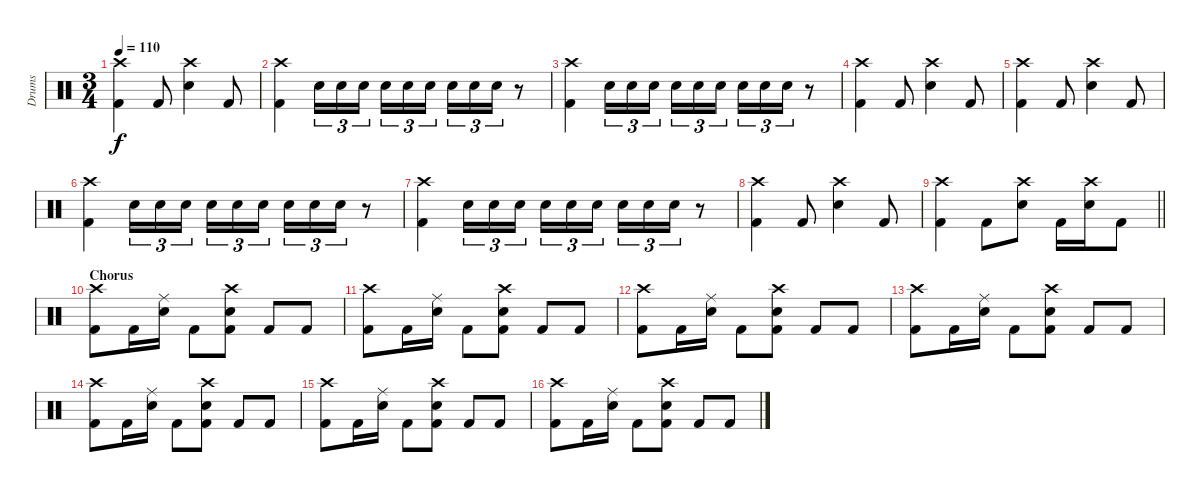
\track ("Drums" "Drums") {instrument percussion}
\staff {score}
\articulation defaults
\ts (3 4)
\tempo 110
\clef neutral
\ks c
("Crash high (hit)" "Kick (hit) 2").4{dy f} "Kick (hit) 2".8 ("Crash high (hit)" "Snare (hit) 2").4 "Kick (hit) 2".8 |
("Crash high (hit)" "Kick (hit) 2").4 "Snare (hit) 2".16{tu (3 2)} "Snare (hit) 2".16{tu (3 2)} "Snare (hit) 2".16{tu (3 2) beam splitsecondary} "Snare (hit) 2".16{tu (3 2)} "Snare (hit) 2".16{tu (3 2)} "Snare (hit) 2".16{tu (3 2)} "Snare (hit) 2".16{tu (3 2)} "Snare (hit) 2".16{tu (3 2)} "Snare (hit) 2".16{tu (3 2)} r.8 |
("Crash high (hit)" "Kick (hit) 2").4 "Snare (hit) 2".16{tu (3 2)} "Snare (hit) 2".16{tu (3 2)} "Snare (hit) 2".16{tu (3 2) beam splitsecondary} "Snare (hit) 2".16{tu (3 2)} "Snare (hit) 2".16{tu (3 2)} "Snare (hit) 2".16{tu (3 2)} "Snare (hit) 2".16{tu (3 2)} "Snare (hit) 2".16{tu (3 2)} "Snare (hit) 2".16{tu (3 2)} r.8 |
("Crash high (hit)" "Kick (hit) 2").4 "Kick (hit) 2".8 ("Crash high (hit)" "Snare (hit) 2").4 "Kick (hit) 2".8 |
("Crash high (hit)" "Kick (hit) 2").4 "Kick (hit) 2".8 ("Crash high (hit)" "Snare (hit) 2").4 "Kick (hit) 2".8 |
("Crash high (hit)" "Kick (hit) 2").4 "Snare (hit) 2".16{tu (3 2)} "Snare (hit) 2".16{tu (3 2)} "Snare (hit) 2".16{tu (3 2) beam splitsecondary} "Snare (hit) 2".16{tu (3 2)} "Snare (hit) 2".16{tu (3 2)} "Snare (hit) 2".16{tu (3 2)} "Snare (hit) 2".16{tu (3 2)} "Snare (hit) 2".16{tu (3 2)} "Snare (hit) 2".16{tu (3 2)} r.8 |
("Crash high (hit)" "Kick (hit) 2").4 "Snare (hit) 2".16{tu (3 2)} "Snare (hit) 2".16{tu (3 2)} "Snare (hit) 2".16{tu (3 2) beam splitsecondary} "Snare (hit) 2".16{tu (3 2)} "Snare (hit) 2".16{tu (3 2)} "Snare (hit) 2".16{tu (3 2)} "Snare (hit) 2".16{tu (3 2)} "Snare (hit) 2".16{tu (3 2)} "Snare (hit) 2".16{tu (3 2)} r.8 |
("Crash high (hit)" "Kick (hit) 2").4 "Kick (hit) 2".8 ("Crash high (hit)" "Snare (hit) 2").4 "Kick (hit) 2".8 |
\barLineRight lightlight
("Crash high (hit)" "Kick (hit) 2").4 "Kick (hit) 2".8 ("Crash high (hit)" "Snare (hit) 2").8 "Kick (hit) 2".16 ("Crash high (hit)" "Snare (hit) 2").16 "Kick (hit) 2".8 |
\section ("" "Chorus")
("Crash high (hit)" "Kick (hit) 2").8 "Kick (hit) 2".16 ("Ride (middle)" "Snare (hit) 2").16 "Kick (hit) 2".8 ("Crash high (hit)" "Snare (hit) 2" "Kick (hit) 2").8 "Kick (hit) 2".8 "Kick (hit) 2".8 |
("Crash high (hit)" "Kick (hit) 2").8 "Kick (hit) 2".16 ("Ride (middle)" "Snare (hit) 2").16 "Kick (hit) 2".8 ("Crash high (hit)" "Snare (hit) 2" "Kick (hit) 2").8 "Kick (hit) 2".8 "Kick (hit) 2".8 |
("Crash high (hit)" "Kick (hit) 2").8 "Kick (hit) 2".16 ("Ride (middle)" "Snare (hit) 2").16 "Kick (hit) 2".8 ("Crash high (hit)" "Snare (hit) 2" "Kick (hit) 2").8 "Kick (hit) 2".8 "Kick (hit) 2".8 |
("Crash high (hit)" "Kick (hit) 2").8 "Kick (hit) 2".16 ("Ride (middle)" "Snare (hit) 2").16 "Kick (hit) 2".8 ("Crash high (hit)" "Snare (hit) 2" "Kick (hit) 2").8 "Kick (hit) 2".8 "Kick (hit) 2".8 |
("Crash high (hit)" "Kick (hit) 2").8 "Kick (hit) 2".16 ("Ride (middle)" "Snare (hit) 2").16 "Kick (hit) 2".8 ("Crash high (hit)" "Snare (hit) 2" "Kick (hit) 2").8 "Kick (hit) 2".8 "Kick (hit) 2".8 |
("Crash high (hit)" "Kick (hit) 2").8 "Kick (hit) 2".16 ("Ride (middle)" "Snare (hit) 2").16 "Kick (hit) 2".8 ("Crash high (hit)" "Snare (hit) 2" "Kick (hit) 2").8 "Kick (hit) 2".8 "Kick (hit) 2".8 |
("Crash high (hit)" "Kick (hit) 2").8 "Kick (hit) 2".16 ("Ride (middle)" "Snare (hit) 2").16 "Kick (hit) 2".8 ("Crash high (hit)" "Snare (hit) 2" "Kick (hit) 2").8 "Kick (hit) 2".8 "Kick (hit) 2".8
